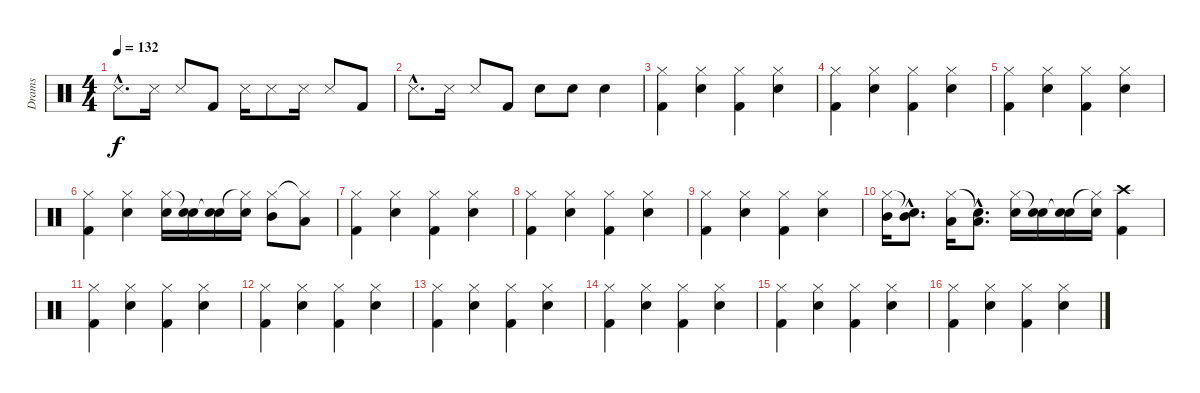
\track ("Drams" "Drams") {instrument percussion}
\staff {score}
\articulation defaults
\ts (4 4)
\tempo 132
\clef neutral
\ks c "Snare (side stick) 3"{hac}.8{d dy f} "Snare (side stick) 3".16 "Snare (side stick) 3".8 "Kick (hit) 2".8 "Snare (side stick) 3".16 "Snare (side stick) 3".8 "Snare (side stick) 3".16 "Snare (side stick) 3".8 "Kick (hit) 2".8
|
"Snare (side stick) 3"{hac}.8{d} "Snare (side stick) 3".16 "Snare (side stick) 3".8 "Kick (hit) 2".8 "Snare (hit) 2".8 "Snare (hit) 2".8 "Snare (hit) 2".4 |
("Hi-Hat (closed)" "Kick (hit) 2").4 ("Hi-Hat (closed)" "Snare (hit) 2").4 ("Hi-Hat (closed)" "Kick (hit) 2").4 ("Hi-Hat (closed)" "Snare (hit) 2").4 |
("Hi-Hat (closed)" "Kick (hit) 2").4 ("Hi-Hat (closed)" "Snare (hit) 2").4 ("Hi-Hat (closed)" "Kick (hit) 2").4 ("Hi-Hat (closed)" "Snare (hit) 2").4 |
("Hi-Hat (closed)" "Kick (hit) 2").4 ("Hi-Hat (closed)" "Snare (hit) 2").4 ("Hi-Hat (closed)" "Kick (hit) 2").4 ("Hi-Hat (closed)" "Snare (hit) 2").4 |
("Hi-Hat (closed)" "Kick (hit) 2").4 ("Hi-Hat (closed)" "Snare (hit) 2").4 ("Hi-Hat (closed)" "Snare (hit) 2").16 ("Snare (hit)"{t} "Snare (hit) 2").16 ("Snare (hit)"{t} "Snare (hit) 2").16 ("Hi-Hat (closed)"{t} "Snare (hit) 2").16 ("Hi-Hat (closed)" "Mid Tom (hit)").8 ("Hi-Hat (closed)"{t} "Low Tom (hit)").8 |
("Hi-Hat (closed)" "Kick (hit) 2").4 ("Hi-Hat (closed)" "Snare (hit) 2").4 ("Hi-Hat (closed)" "Kick (hit) 2").4 ("Hi-Hat (closed)" "Snare (hit) 2").4 |
("Hi-Hat (closed)" "Kick (hit) 2").4 ("Hi-Hat (closed)" "Snare (hit) 2").4 ("Hi-Hat (closed)" "Kick (hit) 2").4 ("Hi-Hat (closed)" "Snare (hit) 2").4 |
("Hi-Hat (closed)" "Kick (hit) 2").4 ("Hi-Hat (closed)" "Snare (hit) 2").4 ("Hi-Hat (closed)" "Kick (hit) 2").4 ("Hi-Hat (closed)" "Snare (hit) 2").4 |
("Hi-Hat (closed)" "Mid Tom (hit)").16 ("Snare (hit)"{hac t} "Mid Tom (hit)"{hac}).8{d} ("Hi-Hat (closed)" "Low Tom (hit)").16 ("Snare (hit)"{hac t} "Low Tom (hit)"{hac}).8{d} ("Hi-Hat (closed)" "Snare (hit) 2").16 ("Snare (hit)"{t} "Snare (hit) 2").16 ("Snare (hit)"{t} "Snare (hit) 2").16 ("Hi-Hat (closed)"{t} "Snare (hit) 2").16 ("Crash high (hit)" "Kick (hit) 2").4 |
("Hi-Hat (closed)" "Kick (hit) 2").4 ("Hi-Hat (closed)" "Snare (hit) 2").4 ("Hi-Hat (closed)" "Kick (hit) 2").4 ("Hi-Hat (closed)" "Snare (hit) 2").4 |
("Hi-Hat (closed)" "Kick (hit) 2").4 ("Hi-Hat (closed)" "Snare (hit) 2").4 ("Hi-Hat (closed)" "Kick (hit) 2").4 ("Hi-Hat (closed)" "Snare (hit) 2").4 |
("Hi-Hat (closed)" "Kick (hit) 2").4 ("Hi-Hat (closed)" "Snare (hit) 2").4 ("Hi-Hat (closed)" "Kick (hit) 2").4 ("Hi-Hat (closed)" "Snare (hit) 2").4 |
("Hi-Hat (closed)" "Kick (hit) 2").4 ("Hi-Hat (closed)" "Snare (hit) 2").4 ("Hi-Hat (closed)" "Kick (hit) 2").4 ("Hi-Hat (closed)" "Snare (hit) 2").4 |
("Hi-Hat (closed)" "Kick (hit) 2").4 ("Hi-Hat (closed)" "Snare (hit) 2").4 ("Hi-Hat (closed)" "Kick (hit) 2").4 ("Hi-Hat (closed)" "Snare (hit) 2").4 |
("Hi-Hat (closed)" "Kick (hit) 2").4 ("Hi-Hat (closed)" "Snare (hit) 2").4 ("Hi-Hat (closed)" "Kick (hit) 2").4 ("Hi-Hat (closed)" "Snare (hit) 2").4
